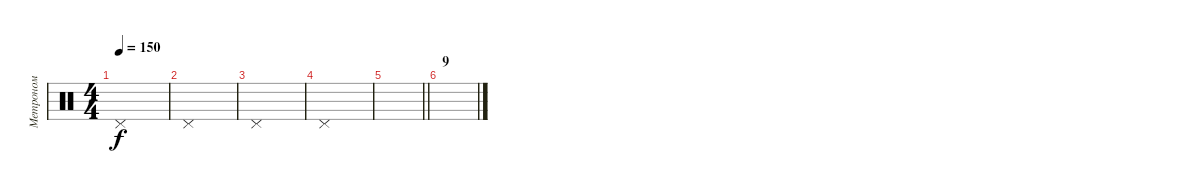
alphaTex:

\track ("Метроном" "Метроном") {mute instrument percussion}
\staff {score}
\articulation defaults
\ts (4 4)
\tempo 150
\clef neutral
\ks c "Pedal Hi-Hat (hit)".1{dy f}
|
"Pedal Hi-Hat (hit)".1 |
"Pedal Hi-Hat (hit)".1 |
"Pedal Hi-Hat (hit)".1 |
\barLineRight lightlight
|
\section ("" "9")
